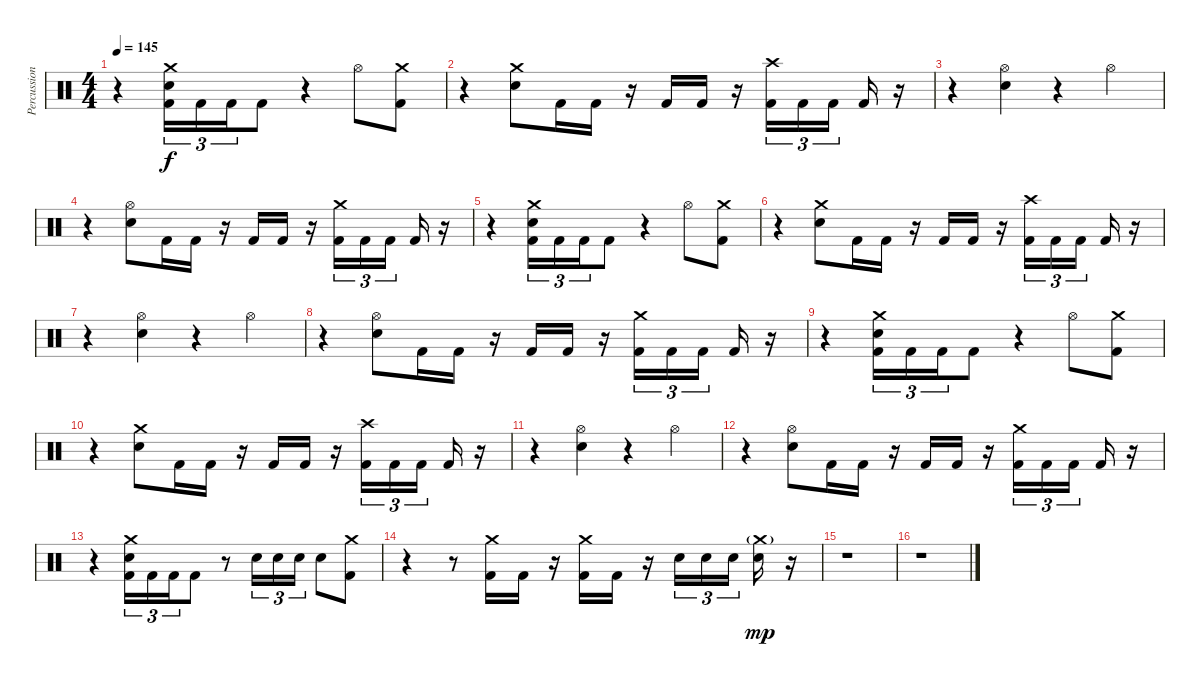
\track ("Percussion" "Percussion") {instrument percussion}
\staff {score}
\articulation defaults
\ts (4 4)
\tempo 145
\clef neutral
\ks c
r.4{dy f} ("Crash medium (hit)" "Electric Snare (hit)" "Kick (hit) 2").16{tu (3 2)} "Kick (hit) 2".16{tu (3 2)} "Kick (hit) 2".16{tu (3 2) beam merge} "Kick (hit) 2".8 r.4 "Hi-Hat (open)".8 ("Crash medium (hit)" "Kick (hit) 2").8 |
r.4 ("Crash medium (hit)" "Electric Snare (hit)").8{beam merge} "Kick (hit) 2".16{beam merge} "Kick (hit) 2".16 r.16{beam merge} "Kick (hit) 2".16 "Kick (hit) 2".16 r.16 ("Crash high (hit)" "Kick (hit) 2").16{tu (3 2)} "Kick (hit) 2".16{tu (3 2)} "Kick (hit) 2".16{tu (3 2) beam splitsecondary} "Kick (hit) 2".16 r.16 |
r.4 ("Hi-Hat (open)" "Electric Snare (hit)").4 r.4 "Hi-Hat (open)".4 |
r.4 ("Hi-Hat (open)" "Electric Snare (hit)").8{beam merge} "Kick (hit) 2".16{beam merge} "Kick (hit) 2".16 r.16{beam merge} "Kick (hit) 2".16 "Kick (hit) 2".16 r.16 ("Crash medium (hit)" "Kick (hit) 2").16{tu (3 2)} "Kick (hit) 2".16{tu (3 2)} "Kick (hit) 2".16{tu (3 2) beam splitsecondary} "Kick (hit) 2".16 r.16 |
r.4 ("Crash medium (hit)" "Electric Snare (hit)" "Kick (hit) 2").16{tu (3 2)} "Kick (hit) 2".16{tu (3 2)} "Kick (hit) 2".16{tu (3 2) beam merge} "Kick (hit) 2".8 r.4 "Hi-Hat (open)".8 ("Crash medium (hit)" "Kick (hit) 2").8 |
r.4 ("Crash medium (hit)" "Electric Snare (hit)").8{beam merge} "Kick (hit) 2".16{beam merge} "Kick (hit) 2".16 r.16{beam merge} "Kick (hit) 2".16 "Kick (hit) 2".16 r.16 ("Crash high (hit)" "Kick (hit) 2").16{tu (3 2)} "Kick (hit) 2".16{tu (3 2)} "Kick (hit) 2".16{tu (3 2) beam splitsecondary} "Kick (hit) 2".16 r.16 |
r.4 ("Hi-Hat (open)" "Electric Snare (hit)").4 r.4 "Hi-Hat (open)".4 |
r.4 ("Hi-Hat (open)" "Electric Snare (hit)").8{beam merge} "Kick (hit) 2".16{beam merge} "Kick (hit) 2".16 r.16{beam merge} "Kick (hit) 2".16 "Kick (hit) 2".16 r.16 ("Crash medium (hit)" "Kick (hit) 2").16{tu (3 2)} "Kick (hit) 2".16{tu (3 2)} "Kick (hit) 2".16{tu (3 2) beam splitsecondary} "Kick (hit) 2".16 r.16 |
r.4 ("Crash medium (hit)" "Electric Snare (hit)" "Kick (hit) 2").16{tu (3 2)} "Kick (hit) 2".16{tu (3 2)} "Kick (hit) 2".16{tu (3 2) beam merge} "Kick (hit) 2".8 r.4 "Hi-Hat (open)".8 ("Crash medium (hit)" "Kick (hit) 2").8 |
r.4 ("Crash medium (hit)" "Electric Snare (hit)").8{beam merge} "Kick (hit) 2".16{beam merge} "Kick (hit) 2".16 r.16{beam merge} "Kick (hit) 2".16 "Kick (hit) 2".16 r.16 ("Crash high (hit)" "Kick (hit) 2").16{tu (3 2)} "Kick (hit) 2".16{tu (3 2)} "Kick (hit) 2".16{tu (3 2) beam splitsecondary} "Kick (hit) 2".16 r.16 |
r.4 ("Hi-Hat (open)" "Electric Snare (hit)").4 r.4 "Hi-Hat (open)".4 |
r.4 ("Hi-Hat (open)" "Electric Snare (hit)").8{beam merge} "Kick (hit) 2".16{beam merge} "Kick (hit) 2".16 r.16{beam merge} "Kick (hit) 2".16 "Kick (hit) 2".16 r.16 ("Crash medium (hit)" "Kick (hit) 2").16{tu (3 2)} "Kick (hit) 2".16{tu (3 2)} "Kick (hit) 2".16{tu (3 2) beam splitsecondary} "Kick (hit) 2".16 r.16 |
r.4 ("Crash medium (hit)" "Electric Snare (hit)" "Kick (hit) 2").16{tu (3 2)} "Kick (hit) 2".16{tu (3 2)} "Kick (hit) 2".16{tu (3 2) beam merge} "Kick (hit) 2".8 r.8 "Electric Snare (hit)".16{tu (3 2) beam merge} "Electric Snare (hit)".16{tu (3 2)} "Electric Snare (hit)".16{tu (3 2)} "Electric Snare (hit)".8 ("Crash medium (hit)" "Kick (hit) 2").8 |
r.4 r.8{beam merge} ("Crash medium (hit)" "Kick (hit) 2").16{beam merge} "Kick (hit) 2".16 r.16{beam merge} ("Crash medium (hit)" "Kick (hit) 2").16 "Kick (hit) 2".16 r.16 "Electric Snare (hit)".16{tu (3 2)} "Electric Snare (hit)".16{tu (3 2)} "Electric Snare (hit)".16{tu (3 2) beam splitsecondary} ("Crash medium (hit)"{g} "Electric Snare (hit)").16{dy mp} r.16 |
r.1 |
r.1
